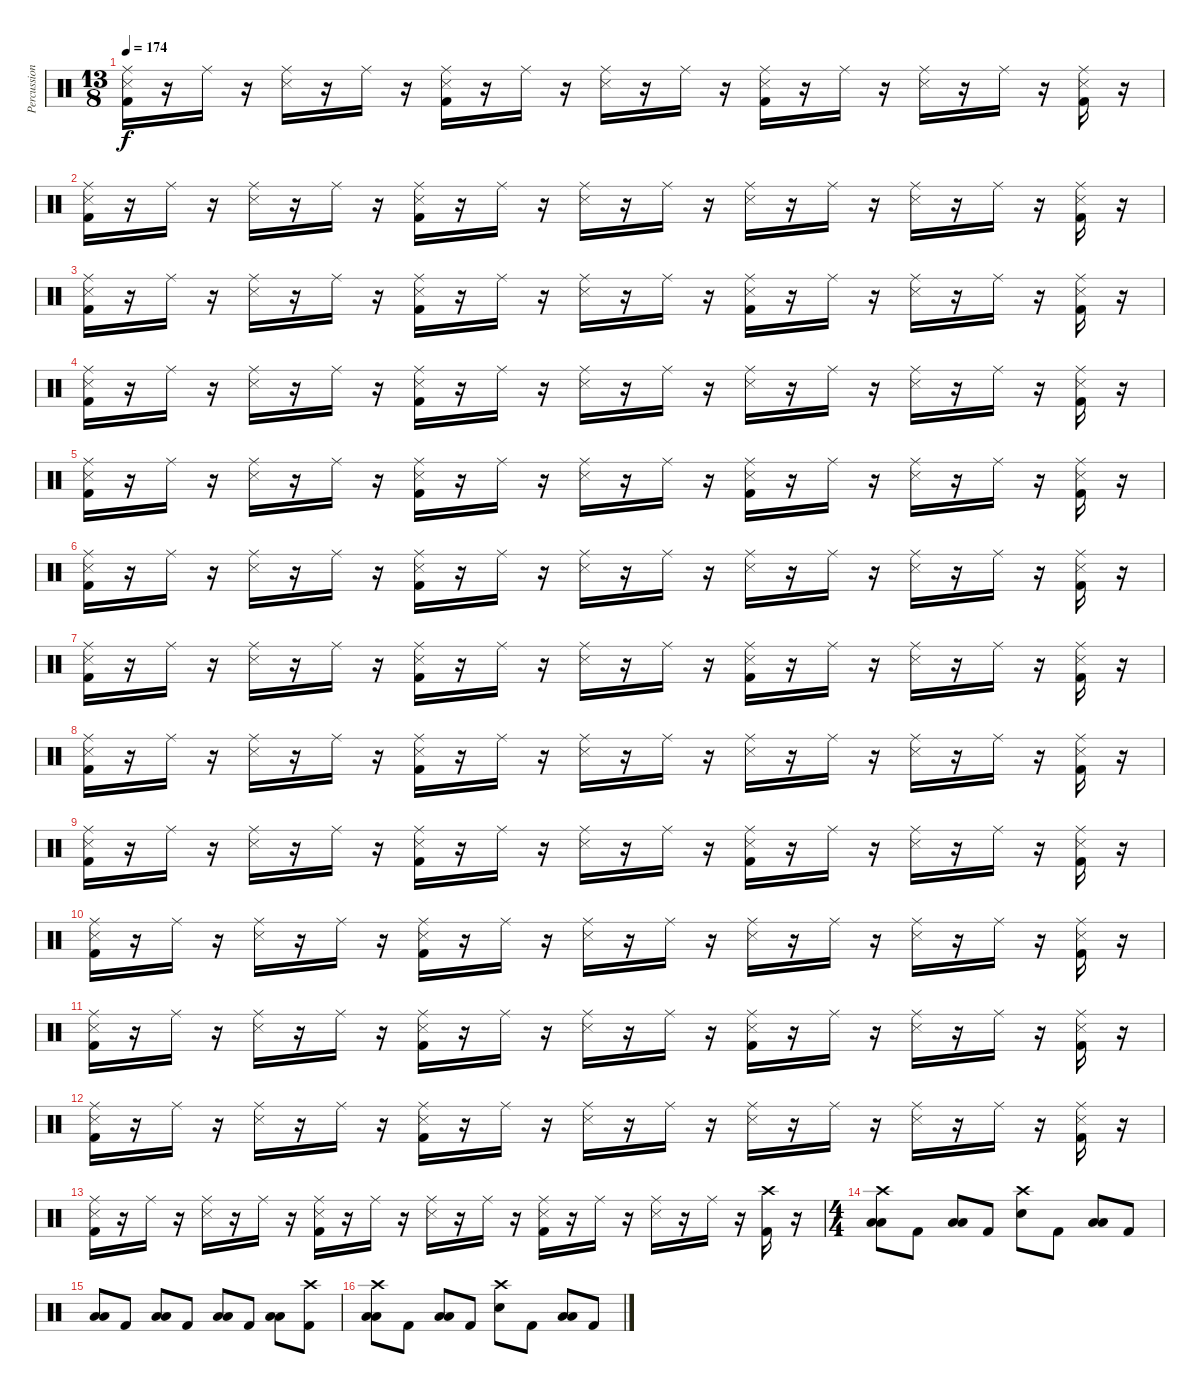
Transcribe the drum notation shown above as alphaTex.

\track ("Percussion" "Percussion") {instrument percussion}
\staff {score}
\articulation defaults
\ts (13 8)
\tempo 174
\clef neutral
\ks c
("Ride (middle)" "Snare (side stick) 3" "Kick (hit) 2").16{dy f} r.16 "Ride (middle)".16 r.16 ("Ride (middle)" "Snare (side stick) 3").16 r.16 "Ride (middle)".16 r.16 ("Ride (middle)" "Snare (side stick) 3" "Kick (hit) 2").16 r.16 "Ride (middle)".16 r.16 ("Ride (middle)" "Snare (side stick) 3").16 r.16 "Ride (middle)".16 r.16 ("Ride (middle)" "Snare (side stick) 3" "Kick (hit) 2").16 r.16 "Ride (middle)".16 r.16 ("Ride (middle)" "Snare (side stick) 3").16 r.16 "Ride (middle)".16 r.16 ("Ride (middle)" "Snare (side stick) 3" "Kick (hit) 2").16 r.16 |
("Ride (middle)" "Snare (side stick) 3" "Kick (hit) 2").16 r.16 "Ride (middle)".16 r.16 ("Ride (middle)" "Snare (side stick) 3").16 r.16 "Ride (middle)".16 r.16 ("Ride (middle)" "Snare (side stick) 3" "Kick (hit) 2").16 r.16 "Ride (middle)".16 r.16 ("Ride (middle)" "Snare (side stick) 3").16 r.16 "Ride (middle)".16 r.16 ("Ride (middle)" "Snare (side stick) 3").16 r.16 "Ride (middle)".16 r.16 ("Ride (middle)" "Snare (side stick) 3").16 r.16 "Ride (middle)".16 r.16 ("Ride (middle)" "Snare (side stick) 3" "Kick (hit) 2").16 r.16 |
("Ride (middle)" "Snare (side stick) 3" "Kick (hit) 2").16 r.16 "Ride (middle)".16 r.16 ("Ride (middle)" "Snare (side stick) 3").16 r.16 "Ride (middle)".16 r.16 ("Ride (middle)" "Snare (side stick) 3" "Kick (hit) 2").16 r.16 "Ride (middle)".16 r.16 ("Ride (middle)" "Snare (side stick) 3").16 r.16 "Ride (middle)".16 r.16 ("Ride (middle)" "Snare (side stick) 3" "Kick (hit) 2").16 r.16 "Ride (middle)".16 r.16 ("Ride (middle)" "Snare (side stick) 3").16 r.16 "Ride (middle)".16 r.16 ("Ride (middle)" "Snare (side stick) 3" "Kick (hit) 2").16 r.16 |
("Ride (middle)" "Snare (side stick) 3" "Kick (hit) 2").16 r.16 "Ride (middle)".16 r.16 ("Ride (middle)" "Snare (side stick) 3").16 r.16 "Ride (middle)".16 r.16 ("Ride (middle)" "Snare (side stick) 3" "Kick (hit) 2").16 r.16 "Ride (middle)".16 r.16 ("Ride (middle)" "Snare (side stick) 3").16 r.16 "Ride (middle)".16 r.16 ("Ride (middle)" "Snare (side stick) 3").16 r.16 "Ride (middle)".16 r.16 ("Ride (middle)" "Snare (side stick) 3").16 r.16 "Ride (middle)".16 r.16 ("Ride (middle)" "Snare (side stick) 3" "Kick (hit) 2").16 r.16 |
("Ride (middle)" "Snare (side stick) 3" "Kick (hit) 2").16 r.16 "Ride (middle)".16 r.16 ("Ride (middle)" "Snare (side stick) 3").16 r.16 "Ride (middle)".16 r.16 ("Ride (middle)" "Snare (side stick) 3" "Kick (hit) 2").16 r.16 "Ride (middle)".16 r.16 ("Ride (middle)" "Snare (side stick) 3").16 r.16 "Ride (middle)".16 r.16 ("Ride (middle)" "Snare (side stick) 3" "Kick (hit) 2").16 r.16 "Ride (middle)".16 r.16 ("Ride (middle)" "Snare (side stick) 3").16 r.16 "Ride (middle)".16 r.16 ("Ride (middle)" "Snare (side stick) 3" "Kick (hit) 2").16 r.16 |
("Ride (middle)" "Snare (side stick) 3" "Kick (hit) 2").16 r.16 "Ride (middle)".16 r.16 ("Ride (middle)" "Snare (side stick) 3").16 r.16 "Ride (middle)".16 r.16 ("Ride (middle)" "Snare (side stick) 3" "Kick (hit) 2").16 r.16 "Ride (middle)".16 r.16 ("Ride (middle)" "Snare (side stick) 3").16 r.16 "Ride (middle)".16 r.16 ("Ride (middle)" "Snare (side stick) 3").16 r.16 "Ride (middle)".16 r.16 ("Ride (middle)" "Snare (side stick) 3").16 r.16 "Ride (middle)".16 r.16 ("Ride (middle)" "Snare (side stick) 3" "Kick (hit) 2").16 r.16 |
("Ride (middle)" "Snare (side stick) 3" "Kick (hit) 2").16 r.16 "Ride (middle)".16 r.16 ("Ride (middle)" "Snare (side stick) 3").16 r.16 "Ride (middle)".16 r.16 ("Ride (middle)" "Snare (side stick) 3" "Kick (hit) 2").16 r.16 "Ride (middle)".16 r.16 ("Ride (middle)" "Snare (side stick) 3").16 r.16 "Ride (middle)".16 r.16 ("Ride (middle)" "Snare (side stick) 3" "Kick (hit) 2").16 r.16 "Ride (middle)".16 r.16 ("Ride (middle)" "Snare (side stick) 3").16 r.16 "Ride (middle)".16 r.16 ("Ride (middle)" "Snare (side stick) 3" "Kick (hit) 2").16 r.16 |
("Ride (middle)" "Snare (side stick) 3" "Kick (hit) 2").16 r.16 "Ride (middle)".16 r.16 ("Ride (middle)" "Snare (side stick) 3").16 r.16 "Ride (middle)".16 r.16 ("Ride (middle)" "Snare (side stick) 3" "Kick (hit) 2").16 r.16 "Ride (middle)".16 r.16 ("Ride (middle)" "Snare (side stick) 3").16 r.16 "Ride (middle)".16 r.16 ("Ride (middle)" "Snare (side stick) 3").16 r.16 "Ride (middle)".16 r.16 ("Ride (middle)" "Snare (side stick) 3").16 r.16 "Ride (middle)".16 r.16 ("Ride (middle)" "Snare (side stick) 3" "Kick (hit) 2").16 r.16 |
("Ride (middle)" "Snare (side stick) 3" "Kick (hit) 2").16 r.16 "Ride (middle)".16 r.16 ("Ride (middle)" "Snare (side stick) 3").16 r.16 "Ride (middle)".16 r.16 ("Ride (middle)" "Snare (side stick) 3" "Kick (hit) 2").16 r.16 "Ride (middle)".16 r.16 ("Ride (middle)" "Snare (side stick) 3").16 r.16 "Ride (middle)".16 r.16 ("Ride (middle)" "Snare (side stick) 3" "Kick (hit) 2").16 r.16 "Ride (middle)".16 r.16 ("Ride (middle)" "Snare (side stick) 3").16 r.16 "Ride (middle)".16 r.16 ("Ride (middle)" "Snare (side stick) 3" "Kick (hit) 2").16 r.16 |
("Ride (middle)" "Snare (side stick) 3" "Kick (hit) 2").16 r.16 "Ride (middle)".16 r.16 ("Ride (middle)" "Snare (side stick) 3").16 r.16 "Ride (middle)".16 r.16 ("Ride (middle)" "Snare (side stick) 3" "Kick (hit) 2").16 r.16 "Ride (middle)".16 r.16 ("Ride (middle)" "Snare (side stick) 3").16 r.16 "Ride (middle)".16 r.16 ("Ride (middle)" "Snare (side stick) 3").16 r.16 "Ride (middle)".16 r.16 ("Ride (middle)" "Snare (side stick) 3").16 r.16 "Ride (middle)".16 r.16 ("Ride (middle)" "Snare (side stick) 3" "Kick (hit) 2").16 r.16 |
("Ride (middle)" "Snare (side stick) 3" "Kick (hit) 2").16 r.16 "Ride (middle)".16 r.16 ("Ride (middle)" "Snare (side stick) 3").16 r.16 "Ride (middle)".16 r.16 ("Ride (middle)" "Snare (side stick) 3" "Kick (hit) 2").16 r.16 "Ride (middle)".16 r.16 ("Ride (middle)" "Snare (side stick) 3").16 r.16 "Ride (middle)".16 r.16 ("Ride (middle)" "Snare (side stick) 3" "Kick (hit) 2").16 r.16 "Ride (middle)".16 r.16 ("Ride (middle)" "Snare (side stick) 3").16 r.16 "Ride (middle)".16 r.16 ("Ride (middle)" "Snare (side stick) 3" "Kick (hit) 2").16 r.16 |
("Ride (middle)" "Snare (side stick) 3" "Kick (hit) 2").16 r.16 "Ride (middle)".16 r.16 ("Ride (middle)" "Snare (side stick) 3").16 r.16 "Ride (middle)".16 r.16 ("Ride (middle)" "Snare (side stick) 3" "Kick (hit) 2").16 r.16 "Ride (middle)".16 r.16 ("Ride (middle)" "Snare (side stick) 3").16 r.16 "Ride (middle)".16 r.16 ("Ride (middle)" "Snare (side stick) 3").16 r.16 "Ride (middle)".16 r.16 ("Ride (middle)" "Snare (side stick) 3").16 r.16 "Ride (middle)".16 r.16 ("Ride (middle)" "Snare (side stick) 3" "Kick (hit) 2").16 r.16 |
("Ride (middle)" "Snare (side stick) 3" "Kick (hit) 2").16 r.16 "Ride (middle)".16 r.16 ("Ride (middle)" "Snare (side stick) 3").16 r.16 "Ride (middle)".16 r.16 ("Ride (middle)" "Snare (side stick) 3" "Kick (hit) 2").16 r.16 "Ride (middle)".16 r.16 ("Ride (middle)" "Snare (side stick) 3").16 r.16 "Ride (middle)".16 r.16 ("Ride (middle)" "Snare (side stick) 3" "Kick (hit) 2").16 r.16 "Ride (middle)".16 r.16 ("Ride (middle)" "Snare (side stick) 3").16 r.16 "Ride (middle)".16 r.16 ("Crash high (hit)" "Kick (hit) 2").16 r.16 |
\ts (4 4)
("Crash high (hit)" "Low Tom (hit)" "Low Floor Tom (hit)").8 "Kick (hit) 2".8 ("Low Tom (hit)" "Low Floor Tom (hit)").8 "Kick (hit) 2".8 ("Crash high (hit)" "Electric Snare (hit)").8 "Kick (hit) 2".8 ("Low Tom (hit)" "Low Tom (hit)").8 "Kick (hit) 2".8 |
("Low Tom (hit)" "Low Floor Tom (hit)").8 "Kick (hit) 2".8 ("Low Tom (hit)" "Low Floor Tom (hit)").8 "Kick (hit) 2".8 ("Low Tom (hit)" "Low Floor Tom (hit)").8 "Kick (hit) 2".8 ("Low Tom (hit)" "Low Tom (hit)").8 ("Crash high (hit)" "Kick (hit) 2").8 |
("Crash high (hit)" "Low Tom (hit)" "Low Floor Tom (hit)").8 "Kick (hit) 2".8 ("Low Tom (hit)" "Low Floor Tom (hit)").8 "Kick (hit) 2".8 ("Crash high (hit)" "Electric Snare (hit)").8 "Kick (hit) 2".8 ("Low Tom (hit)" "Low Tom (hit)").8 "Kick (hit) 2".8
